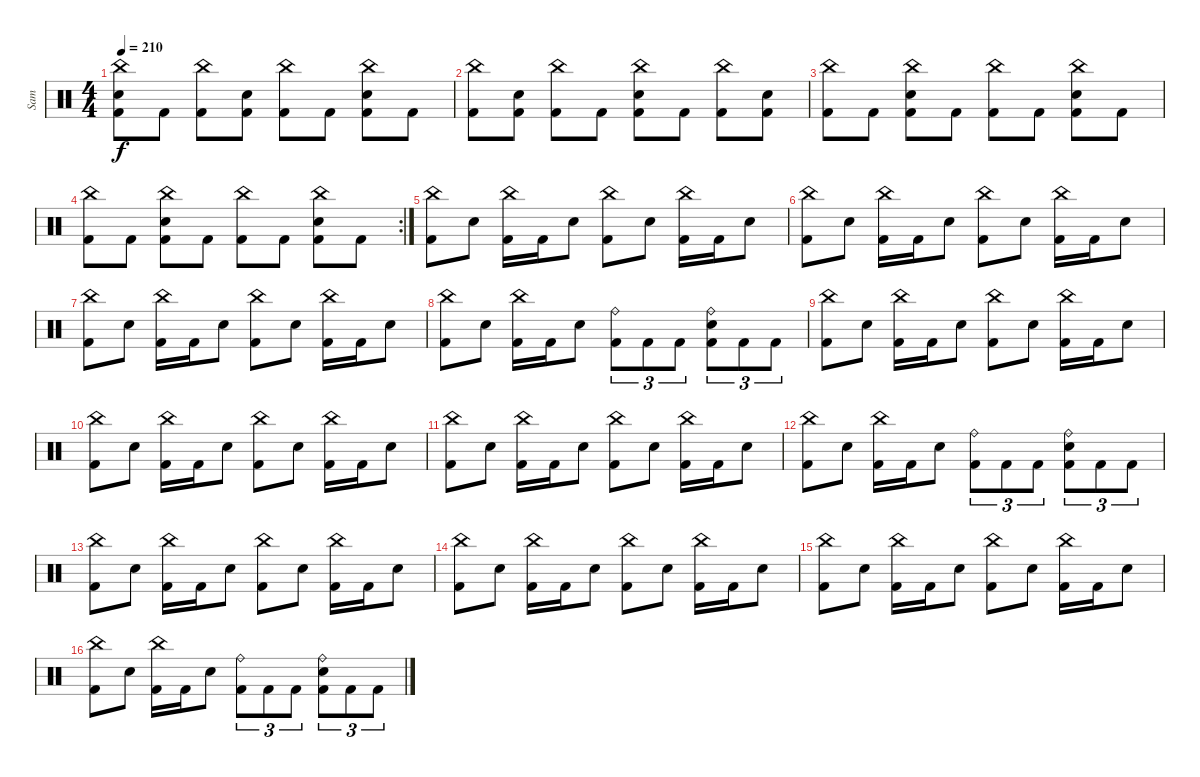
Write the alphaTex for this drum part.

\track ("Sam" "Sam") {instrument percussion}
\staff {score}
\articulation defaults
\ts (4 4)
\tempo 210
\clef neutral
\ks c
("China (hit)" "Snare (hit) 2" "Kick (hit) 2").8{dy f} "Kick (hit) 2".8 ("China (hit)" "Kick (hit) 2").8 ("Snare (hit) 2" "Kick (hit) 2").8 ("China (hit)" "Kick (hit) 2").8 "Kick (hit) 2".8 ("China (hit)" "Snare (hit) 2" "Kick (hit) 2").8 "Kick (hit) 2".8 |
("China (hit)" "Kick (hit) 2").8 ("Snare (hit) 2" "Kick (hit) 2").8 ("China (hit)" "Kick (hit) 2").8 "Kick (hit) 2".8 ("China (hit)" "Snare (hit) 2" "Kick (hit) 2").8 "Kick (hit) 2".8 ("China (hit)" "Kick (hit) 2").8 ("Snare (hit) 2" "Kick (hit) 2").8 |
("China (hit)" "Kick (hit) 2").8 "Kick (hit) 2".8 ("China (hit)" "Snare (hit) 2" "Kick (hit) 2").8 "Kick (hit) 2".8 ("China (hit)" "Kick (hit) 2").8 "Kick (hit) 2".8 ("China (hit)" "Snare (hit) 2" "Kick (hit) 2").8 "Kick (hit) 2".8 |
\rc 2
("China (hit)" "Kick (hit) 2").8 "Kick (hit) 2".8 ("China (hit)" "Snare (hit) 2" "Kick (hit) 2").8 "Kick (hit) 2".8 ("China (hit)" "Kick (hit) 2").8 "Kick (hit) 2".8 ("China (hit)" "Snare (hit) 2" "Kick (hit) 2").8 "Kick (hit) 2".8 |
("China (hit)" "Kick (hit) 2").8 "Snare (hit) 2".8 ("China (hit)" "Kick (hit) 2").16 "Kick (hit) 2".16 "Snare (hit) 2".8 ("China (hit)" "Kick (hit) 2").8 "Snare (hit) 2".8 ("China (hit)" "Kick (hit) 2").16 "Kick (hit) 2".16 "Snare (hit) 2".8 |
("China (hit)" "Kick (hit) 2").8 "Snare (hit) 2".8 ("China (hit)" "Kick (hit) 2").16 "Kick (hit) 2".16 "Snare (hit) 2".8 ("China (hit)" "Kick (hit) 2").8 "Snare (hit) 2".8 ("China (hit)" "Kick (hit) 2").16 "Kick (hit) 2".16 "Snare (hit) 2".8 |
("China (hit)" "Kick (hit) 2").8 "Snare (hit) 2".8 ("China (hit)" "Kick (hit) 2").16 "Kick (hit) 2".16 "Snare (hit) 2".8 ("China (hit)" "Kick (hit) 2").8 "Snare (hit) 2".8 ("China (hit)" "Kick (hit) 2").16 "Kick (hit) 2".16 "Snare (hit) 2".8 |
("China (hit)" "Kick (hit) 2").8 "Snare (hit) 2".8 ("China (hit)" "Kick (hit) 2").16 "Kick (hit) 2".16 "Snare (hit) 2".8 ("Ride (bell)" "Kick (hit) 2").8{tu (3 2)} "Kick (hit) 2".8{tu (3 2)} "Kick (hit) 2".8{tu (3 2)} ("Ride (bell)" "Snare (hit) 2" "Kick (hit) 2").8{tu (3 2)} "Kick (hit) 2".8{tu (3 2)} "Kick (hit) 2".8{tu (3 2)} |
("China (hit)" "Kick (hit) 2").8 "Snare (hit) 2".8 ("China (hit)" "Kick (hit) 2").16 "Kick (hit) 2".16 "Snare (hit) 2".8 ("China (hit)" "Kick (hit) 2").8 "Snare (hit) 2".8 ("China (hit)" "Kick (hit) 2").16 "Kick (hit) 2".16 "Snare (hit) 2".8 |
("China (hit)" "Kick (hit) 2").8 "Snare (hit) 2".8 ("China (hit)" "Kick (hit) 2").16 "Kick (hit) 2".16 "Snare (hit) 2".8 ("China (hit)" "Kick (hit) 2").8 "Snare (hit) 2".8 ("China (hit)" "Kick (hit) 2").16 "Kick (hit) 2".16 "Snare (hit) 2".8 |
("China (hit)" "Kick (hit) 2").8 "Snare (hit) 2".8 ("China (hit)" "Kick (hit) 2").16 "Kick (hit) 2".16 "Snare (hit) 2".8 ("China (hit)" "Kick (hit) 2").8 "Snare (hit) 2".8 ("China (hit)" "Kick (hit) 2").16 "Kick (hit) 2".16 "Snare (hit) 2".8 |
("China (hit)" "Kick (hit) 2").8 "Snare (hit) 2".8 ("China (hit)" "Kick (hit) 2").16 "Kick (hit) 2".16 "Snare (hit) 2".8 ("Ride (bell)" "Kick (hit) 2").8{tu (3 2)} "Kick (hit) 2".8{tu (3 2)} "Kick (hit) 2".8{tu (3 2)} ("Ride (bell)" "Snare (hit) 2" "Kick (hit) 2").8{tu (3 2)} "Kick (hit) 2".8{tu (3 2)} "Kick (hit) 2".8{tu (3 2)} |
("China (hit)" "Kick (hit) 2").8 "Snare (hit) 2".8 ("China (hit)" "Kick (hit) 2").16 "Kick (hit) 2".16 "Snare (hit) 2".8 ("China (hit)" "Kick (hit) 2").8 "Snare (hit) 2".8 ("China (hit)" "Kick (hit) 2").16 "Kick (hit) 2".16 "Snare (hit) 2".8 |
("China (hit)" "Kick (hit) 2").8 "Snare (hit) 2".8 ("China (hit)" "Kick (hit) 2").16 "Kick (hit) 2".16 "Snare (hit) 2".8 ("China (hit)" "Kick (hit) 2").8 "Snare (hit) 2".8 ("China (hit)" "Kick (hit) 2").16 "Kick (hit) 2".16 "Snare (hit) 2".8 |
("China (hit)" "Kick (hit) 2").8 "Snare (hit) 2".8 ("China (hit)" "Kick (hit) 2").16 "Kick (hit) 2".16 "Snare (hit) 2".8 ("China (hit)" "Kick (hit) 2").8 "Snare (hit) 2".8 ("China (hit)" "Kick (hit) 2").16 "Kick (hit) 2".16 "Snare (hit) 2".8 |
("China (hit)" "Kick (hit) 2").8 "Snare (hit) 2".8 ("China (hit)" "Kick (hit) 2").16 "Kick (hit) 2".16 "Snare (hit) 2".8 ("Ride (bell)" "Kick (hit) 2").8{tu (3 2)} "Kick (hit) 2".8{tu (3 2)} "Kick (hit) 2".8{tu (3 2)} ("Ride (bell)" "Snare (hit) 2" "Kick (hit) 2").8{tu (3 2)} "Kick (hit) 2".8{tu (3 2)} "Kick (hit) 2".8{tu (3 2)}
